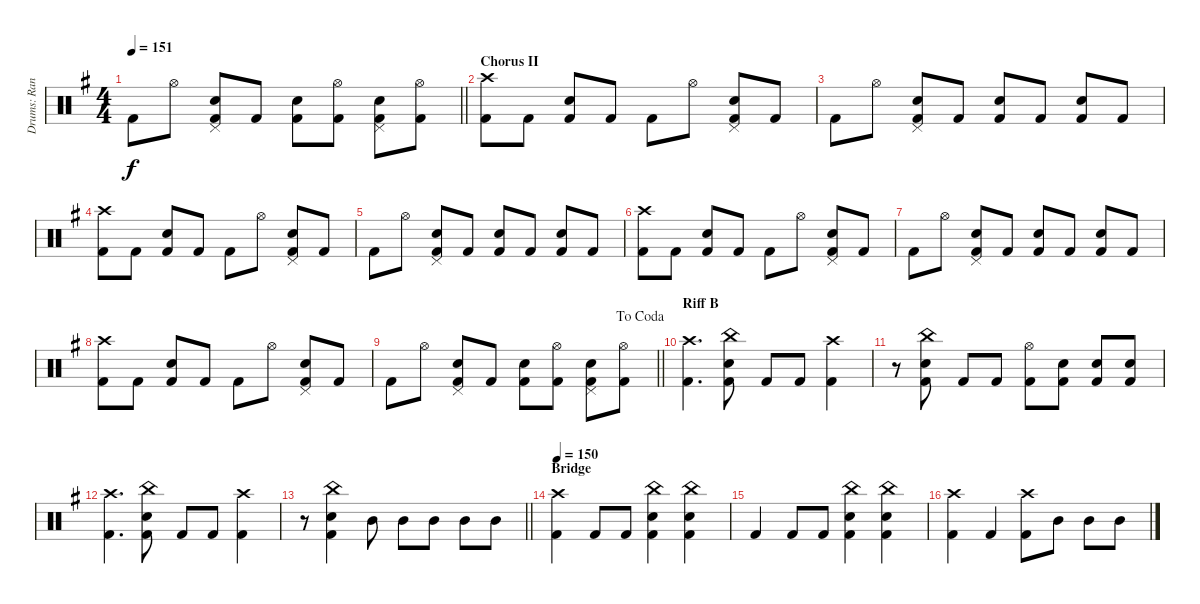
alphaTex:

\track ("Drums: Randy" "Drums: Ran") {instrument percussion}
\staff {score}
\articulation defaults
\ts (4 4)
\tempo 151
\clef neutral
\barLineRight lightlight
\ks g "Kick (hit) 2".8{dy f} "Hi-Hat (open)".8
("Pedal Hi-Hat (hit)" "Snare (hit) 2" "Kick (hit) 2").8 "Kick (hit) 2".8 ("Snare (hit) 2" "Kick (hit) 2").8 ("Hi-Hat (open)" "Kick (hit) 2").8 ("Pedal Hi-Hat (hit)" "Snare (hit) 2" "Kick (hit) 2").8 ("Hi-Hat (open)" "Kick (hit) 2").8 |
\section ("" "Chorus II")
("Crash high (hit)" "Kick (hit) 2").8 "Kick (hit) 2".8 ("Snare (hit) 2" "Kick (hit) 2").8 "Kick (hit) 2".8 "Kick (hit) 2".8 "Hi-Hat (open)".8 ("Pedal Hi-Hat (hit)" "Snare (hit) 2" "Kick (hit) 2").8 "Kick (hit) 2".8 |
"Kick (hit) 2".8 "Hi-Hat (open)".8 ("Pedal Hi-Hat (hit)" "Snare (hit) 2" "Kick (hit) 2").8 "Kick (hit) 2".8 ("Snare (hit) 2" "Kick (hit) 2").8 "Kick (hit) 2".8 ("Snare (hit) 2" "Kick (hit) 2").8 "Kick (hit) 2".8 |
("Crash high (hit)" "Kick (hit) 2").8 "Kick (hit) 2".8 ("Snare (hit) 2" "Kick (hit) 2").8 "Kick (hit) 2".8 "Kick (hit) 2".8 "Hi-Hat (open)".8 ("Pedal Hi-Hat (hit)" "Snare (hit) 2" "Kick (hit) 2").8 "Kick (hit) 2".8 |
"Kick (hit) 2".8 "Hi-Hat (open)".8 ("Pedal Hi-Hat (hit)" "Snare (hit) 2" "Kick (hit) 2").8 "Kick (hit) 2".8 ("Snare (hit) 2" "Kick (hit) 2").8 "Kick (hit) 2".8 ("Snare (hit) 2" "Kick (hit) 2").8 "Kick (hit) 2".8 |
("Crash high (hit)" "Kick (hit) 2").8 "Kick (hit) 2".8 ("Snare (hit) 2" "Kick (hit) 2").8 "Kick (hit) 2".8 "Kick (hit) 2".8 "Hi-Hat (open)".8 ("Pedal Hi-Hat (hit)" "Snare (hit) 2" "Kick (hit) 2").8 "Kick (hit) 2".8 |
"Kick (hit) 2".8 "Hi-Hat (open)".8 ("Pedal Hi-Hat (hit)" "Snare (hit) 2" "Kick (hit) 2").8 "Kick (hit) 2".8 ("Snare (hit) 2" "Kick (hit) 2").8 "Kick (hit) 2".8 ("Snare (hit) 2" "Kick (hit) 2").8 "Kick (hit) 2".8 |
("Crash high (hit)" "Kick (hit) 2").8 "Kick (hit) 2".8 ("Snare (hit) 2" "Kick (hit) 2").8 "Kick (hit) 2".8 "Kick (hit) 2".8 "Hi-Hat (open)".8 ("Pedal Hi-Hat (hit)" "Snare (hit) 2" "Kick (hit) 2").8 "Kick (hit) 2".8 |
\jump dacoda
\barLineRight lightlight "Kick (hit) 2".8 "Hi-Hat (open)".8
("Pedal Hi-Hat (hit)" "Snare (hit) 2" "Kick (hit) 2").8 "Kick (hit) 2".8 ("Snare (hit) 2" "Kick (hit) 2").8 ("Hi-Hat (open)" "Kick (hit) 2").8 ("Pedal Hi-Hat (hit)" "Snare (hit) 2" "Kick (hit) 2").8 ("Hi-Hat (open)" "Kick (hit) 2").8 |
\section ("" "Riff B")
("Crash high (hit)" "Kick (hit) 2").4{d} ("China (hit)" "Snare (hit) 2" "Kick (hit) 2").8 "Kick (hit) 2".8 "Kick (hit) 2".8 ("Crash high (hit)" "Kick (hit) 2").4 |
r.8 ("China (hit)" "Snare (hit) 2" "Kick (hit) 2").8 "Kick (hit) 2".8 "Kick (hit) 2".8 ("Hi-Hat (open)" "Kick (hit) 2").8 ("Snare (hit) 2" "Kick (hit) 2").8 ("Snare (hit) 2" "Kick (hit) 2").8 ("Snare (hit) 2" "Kick (hit) 2").8 |
("Crash high (hit)" "Kick (hit) 2").4{d} ("China (hit)" "Snare (hit) 2" "Kick (hit) 2").8 "Kick (hit) 2".8 "Kick (hit) 2".8 ("Crash high (hit)" "Kick (hit) 2").4 |
\barLineRight lightlight
r.8 ("China (hit)" "Snare (hit) 2" "Kick (hit) 2").4 "Mid Tom (hit)".8 "Mid Tom (hit)".8 "Mid Tom (hit)".8 "Mid Tom (hit)".8 "Mid Tom (hit)".8 |
\section ("" "Bridge")
\tempo 150
("Crash high (hit)" "Kick (hit) 2").4 "Kick (hit) 2".8 "Kick (hit) 2".8 ("China (hit)" "Snare (hit) 2" "Kick (hit) 2").4 ("China (hit)" "Snare (hit) 2" "Kick (hit) 2").4 |
"Kick (hit) 2".4 "Kick (hit) 2".8 "Kick (hit) 2".8 ("China (hit)" "Snare (hit) 2" "Kick (hit) 2").4 ("China (hit)" "Snare (hit) 2" "Kick (hit) 2").4 |
("Crash high (hit)" "Kick (hit) 2").4 "Kick (hit) 2".4 ("Crash high (hit)" "Kick (hit) 2").8 "Mid Tom (hit)".8 "Mid Tom (hit)".8 "Mid Tom (hit)".8
